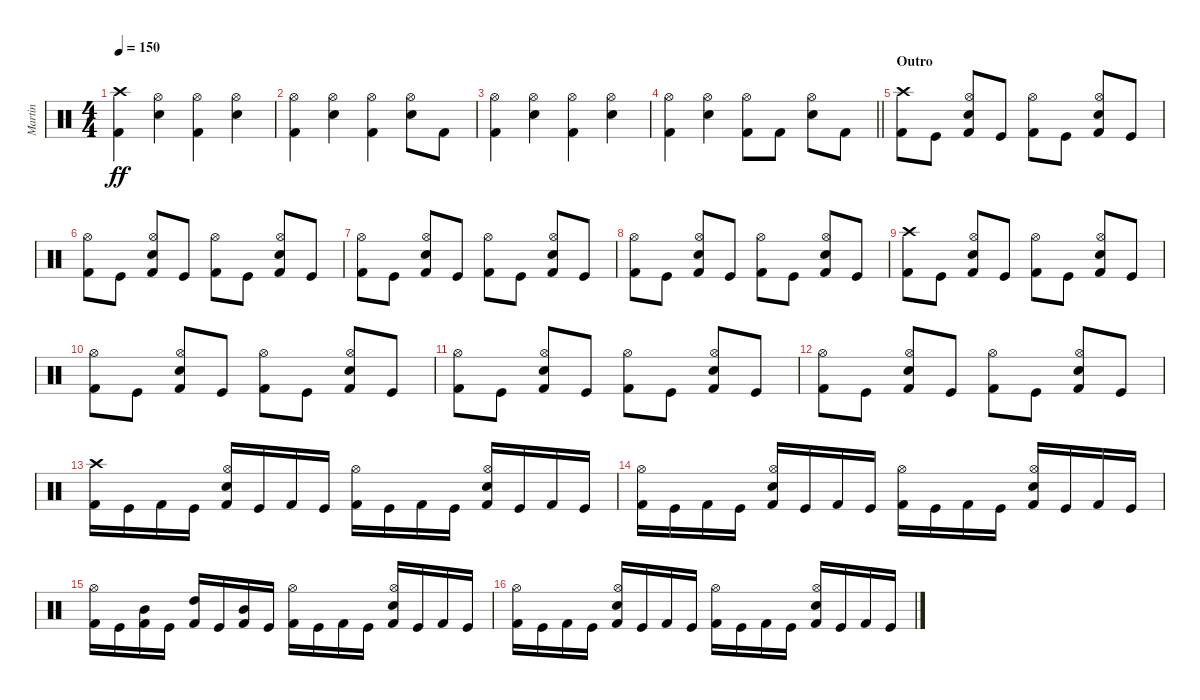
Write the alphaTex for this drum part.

\track ("Martin" "Martin") {instrument percussion}
\staff {score}
\articulation defaults
\ts (4 4)
\tempo 150
\clef neutral
\ks c
("Crash high (hit)" "Kick (hit) 2").4{dy ff} ("Hi-Hat (open)" "Electric Snare (hit)").4 ("Hi-Hat (open)" "Kick (hit) 2").4 ("Hi-Hat (open)" "Electric Snare (hit)").4 |
("Hi-Hat (open)" "Kick (hit) 2").4 ("Hi-Hat (open)" "Electric Snare (hit)").4 ("Hi-Hat (open)" "Kick (hit) 2").4 ("Hi-Hat (open)" "Electric Snare (hit)").8 "Kick (hit) 2".8 |
("Hi-Hat (open)" "Kick (hit) 2").4 ("Hi-Hat (open)" "Electric Snare (hit)").4 ("Hi-Hat (open)" "Kick (hit) 2").4 ("Hi-Hat (open)" "Electric Snare (hit)").4 |
\barLineRight lightlight
("Hi-Hat (open)" "Kick (hit) 2").4 ("Hi-Hat (open)" "Electric Snare (hit)").4 ("Hi-Hat (open)" "Kick (hit) 2").8 "Kick (hit) 2".8 ("Hi-Hat (open)" "Electric Snare (hit)").8 "Kick (hit) 2".8 |
\section ("" "Outro")
("Crash high (hit)" "Kick (hit) 2").8 "Kick (hit)".8 ("Hi-Hat (open)" "Electric Snare (hit)" "Kick (hit) 2").8 "Kick (hit)".8 ("Hi-Hat (open)" "Kick (hit) 2").8 "Kick (hit)".8 ("Hi-Hat (open)" "Electric Snare (hit)" "Kick (hit) 2").8 "Kick (hit)".8 |
("Hi-Hat (open)" "Kick (hit) 2").8 "Kick (hit)".8 ("Hi-Hat (open)" "Electric Snare (hit)" "Kick (hit) 2").8 "Kick (hit)".8 ("Hi-Hat (open)" "Kick (hit) 2").8 "Kick (hit)".8 ("Hi-Hat (open)" "Electric Snare (hit)" "Kick (hit) 2").8 "Kick (hit)".8 |
("Hi-Hat (open)" "Kick (hit) 2").8 "Kick (hit)".8 ("Hi-Hat (open)" "Electric Snare (hit)" "Kick (hit) 2").8 "Kick (hit)".8 ("Hi-Hat (open)" "Kick (hit) 2").8 "Kick (hit)".8 ("Hi-Hat (open)" "Electric Snare (hit)" "Kick (hit) 2").8 "Kick (hit)".8 |
("Hi-Hat (open)" "Kick (hit) 2").8 "Kick (hit)".8 ("Hi-Hat (open)" "Electric Snare (hit)" "Kick (hit) 2").8 "Kick (hit)".8 ("Hi-Hat (open)" "Kick (hit) 2").8 "Kick (hit)".8 ("Hi-Hat (open)" "Electric Snare (hit)" "Kick (hit) 2").8 "Kick (hit)".8 |
("Crash high (hit)" "Kick (hit) 2").8 "Kick (hit)".8 ("Hi-Hat (open)" "Electric Snare (hit)" "Kick (hit) 2").8 "Kick (hit)".8 ("Hi-Hat (open)" "Kick (hit) 2").8 "Kick (hit)".8 ("Hi-Hat (open)" "Electric Snare (hit)" "Kick (hit) 2").8 "Kick (hit)".8 |
("Hi-Hat (open)" "Kick (hit) 2").8 "Kick (hit)".8 ("Hi-Hat (open)" "Electric Snare (hit)" "Kick (hit) 2").8 "Kick (hit)".8 ("Hi-Hat (open)" "Kick (hit) 2").8 "Kick (hit)".8 ("Hi-Hat (open)" "Electric Snare (hit)" "Kick (hit) 2").8 "Kick (hit)".8 |
("Hi-Hat (open)" "Kick (hit) 2").8 "Kick (hit)".8 ("Hi-Hat (open)" "Electric Snare (hit)" "Kick (hit) 2").8 "Kick (hit)".8 ("Hi-Hat (open)" "Kick (hit) 2").8 "Kick (hit)".8 ("Hi-Hat (open)" "Electric Snare (hit)" "Kick (hit) 2").8 "Kick (hit)".8 |
("Hi-Hat (open)" "Kick (hit) 2").8 "Kick (hit)".8 ("Hi-Hat (open)" "Electric Snare (hit)" "Kick (hit) 2").8 "Kick (hit)".8 ("Hi-Hat (open)" "Kick (hit) 2").8 "Kick (hit)".8 ("Hi-Hat (open)" "Electric Snare (hit)" "Kick (hit) 2").8 "Kick (hit)".8 |
("Crash high (hit)" "Kick (hit) 2").16 "Kick (hit)".16 "Kick (hit) 2".16 "Kick (hit)".16 ("Hi-Hat (open)" "Electric Snare (hit)" "Kick (hit) 2").16 "Kick (hit)".16 "Kick (hit) 2".16 "Kick (hit)".16 ("Hi-Hat (open)" "Kick (hit) 2").16 "Kick (hit)".16 "Kick (hit) 2".16 "Kick (hit)".16 ("Hi-Hat (open)" "Electric Snare (hit)" "Kick (hit) 2").16 "Kick (hit)".16 "Kick (hit) 2".16 "Kick (hit)".16 |
("Hi-Hat (open)" "Kick (hit) 2").16 "Kick (hit)".16 "Kick (hit) 2".16 "Kick (hit)".16 ("Hi-Hat (open)" "Electric Snare (hit)" "Kick (hit) 2").16 "Kick (hit)".16 "Kick (hit) 2".16 "Kick (hit)".16 ("Hi-Hat (open)" "Kick (hit) 2").16 "Kick (hit)".16 "Kick (hit) 2".16 "Kick (hit)".16 ("Hi-Hat (open)" "Electric Snare (hit)" "Kick (hit) 2").16 "Kick (hit)".16 "Kick (hit) 2".16 "Kick (hit)".16 |
("Hi-Hat (open)" "Kick (hit) 2").16 "Kick (hit)".16 ("Mid Tom (hit)" "Kick (hit) 2").16 "Kick (hit)".16 ("High Tom (hit)" "Kick (hit) 2").16 "Kick (hit)".16 ("Mid Tom (hit)" "Kick (hit) 2").16 "Kick (hit)".16 ("Hi-Hat (open)" "Kick (hit) 2").16 "Kick (hit)".16 "Kick (hit) 2".16 "Kick (hit)".16 ("Hi-Hat (open)" "Electric Snare (hit)" "Kick (hit) 2").16 "Kick (hit)".16 "Kick (hit) 2".16 "Kick (hit)".16 |
("Hi-Hat (open)" "Kick (hit) 2").16 "Kick (hit)".16 "Kick (hit) 2".16 "Kick (hit)".16 ("Hi-Hat (open)" "Electric Snare (hit)" "Kick (hit) 2").16 "Kick (hit)".16 "Kick (hit) 2".16 "Kick (hit)".16 ("Hi-Hat (open)" "Kick (hit) 2").16 "Kick (hit)".16 "Kick (hit) 2".16 "Kick (hit)".16 ("Hi-Hat (open)" "Electric Snare (hit)" "Kick (hit) 2").16 "Kick (hit)".16 "Kick (hit) 2".16 "Kick (hit)".16
